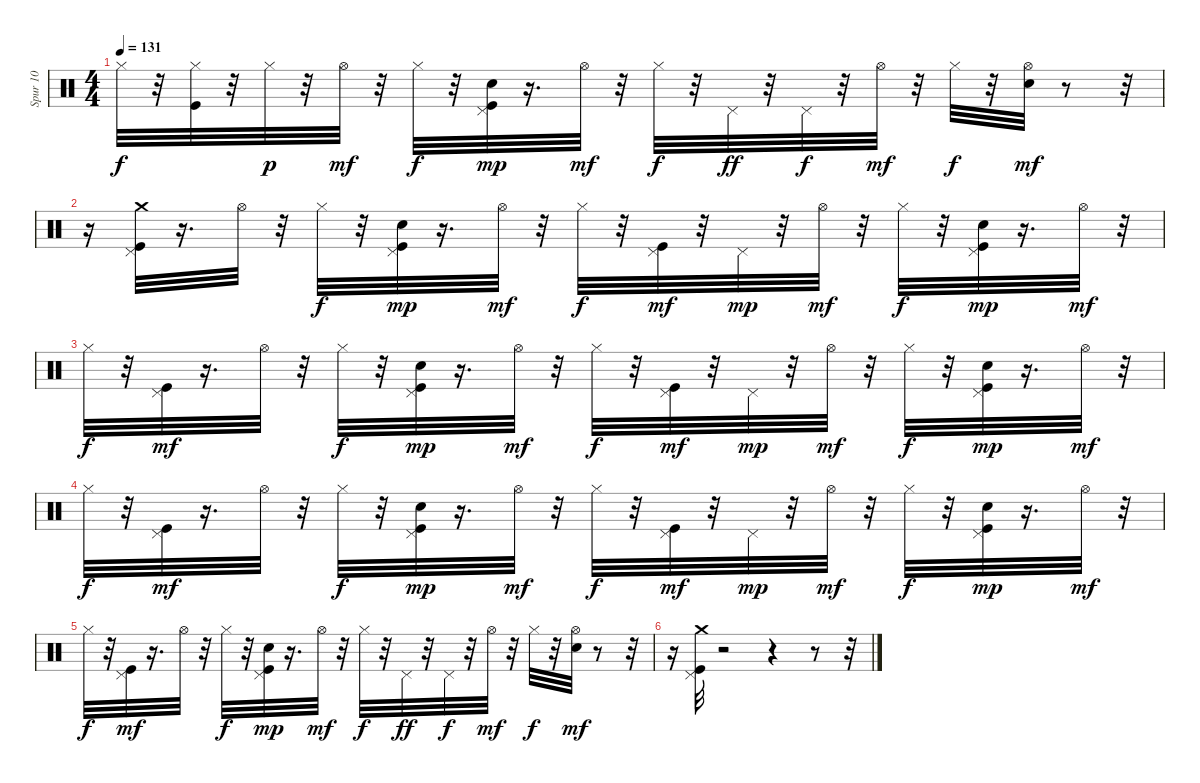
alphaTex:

\track ("Spur 10" "Spur 10") {instrument percussion}
\staff {score}
\articulation defaults
\ts (4 4)
\tempo 131
\clef neutral
\ks c "Hi-Hat (closed)".32{dy f}
r.32 ("Kick (hit)" "Hi-Hat (closed)").32 r.32 "Hi-Hat (closed)".32{dy p} r.32 "Hi-Hat (open)".32{dy mf} r.32 "Hi-Hat (closed)".32{dy f} r.32 ("Kick (hit)" "Hand Clap (hit)" "Pedal Hi-Hat (hit)").32{dy mp} r.16{d} "Hi-Hat (open)".32{dy mf} r.32 "Hi-Hat (closed)".32{dy f} r.32 "Pedal Hi-Hat (hit)".32{dy ff} r.32 "Pedal Hi-Hat (hit)".32{dy f} r.32 "Hi-Hat (open)".32{dy mf} r.32 "Hi-Hat (closed)".32{dy f} r.32 ("Hand Clap (hit)" "Hi-Hat (open)").32{dy mf} r.8 r.32 |
r.16 ("Crash medium (hit)" "Kick (hit)" "Pedal Hi-Hat (hit)").32 r.16{d} "Hi-Hat (open)".32 r.32 "Hi-Hat (closed)".32{dy f} r.32 ("Kick (hit)" "Hand Clap (hit)" "Pedal Hi-Hat (hit)").32{dy mp} r.16{d} "Hi-Hat (open)".32{dy mf} r.32 "Hi-Hat (closed)".32{dy f} r.32 ("Kick (hit)" "Pedal Hi-Hat (hit)").32{dy mf} r.32 "Pedal Hi-Hat (hit)".32{dy mp} r.32 "Hi-Hat (open)".32{dy mf} r.32 "Hi-Hat (closed)".32{dy f} r.32 ("Kick (hit)" "Hand Clap (hit)" "Pedal Hi-Hat (hit)").32{dy mp} r.16{d} "Hi-Hat (open)".32{dy mf} r.32 |
"Hi-Hat (closed)".32{dy f} r.32 ("Kick (hit)" "Pedal Hi-Hat (hit)").32{dy mf} r.16{d} "Hi-Hat (open)".32 r.32 "Hi-Hat (closed)".32{dy f} r.32 ("Kick (hit)" "Hand Clap (hit)" "Pedal Hi-Hat (hit)").32{dy mp} r.16{d} "Hi-Hat (open)".32{dy mf} r.32 "Hi-Hat (closed)".32{dy f} r.32 ("Kick (hit)" "Pedal Hi-Hat (hit)").32{dy mf} r.32 "Pedal Hi-Hat (hit)".32{dy mp} r.32 "Hi-Hat (open)".32{dy mf} r.32 "Hi-Hat (closed)".32{dy f} r.32 ("Kick (hit)" "Hand Clap (hit)" "Pedal Hi-Hat (hit)").32{dy mp} r.16{d} "Hi-Hat (open)".32{dy mf} r.32 |
"Hi-Hat (closed)".32{dy f} r.32 ("Kick (hit)" "Pedal Hi-Hat (hit)").32{dy mf} r.16{d} "Hi-Hat (open)".32 r.32 "Hi-Hat (closed)".32{dy f} r.32 ("Kick (hit)" "Hand Clap (hit)" "Pedal Hi-Hat (hit)").32{dy mp} r.16{d} "Hi-Hat (open)".32{dy mf} r.32 "Hi-Hat (closed)".32{dy f} r.32 ("Kick (hit)" "Pedal Hi-Hat (hit)").32{dy mf} r.32 "Pedal Hi-Hat (hit)".32{dy mp} r.32 "Hi-Hat (open)".32{dy mf} r.32 "Hi-Hat (closed)".32{dy f} r.32 ("Kick (hit)" "Hand Clap (hit)" "Pedal Hi-Hat (hit)").32{dy mp} r.16{d} "Hi-Hat (open)".32{dy mf} r.32 |
"Hi-Hat (closed)".32{dy f} r.32 ("Kick (hit)" "Pedal Hi-Hat (hit)").32{dy mf} r.16{d} "Hi-Hat (open)".32 r.32 "Hi-Hat (closed)".32{dy f} r.32 ("Kick (hit)" "Hand Clap (hit)" "Pedal Hi-Hat (hit)").32{dy mp} r.16{d} "Hi-Hat (open)".32{dy mf} r.32 "Hi-Hat (closed)".32{dy f} r.32 "Pedal Hi-Hat (hit)".32{dy ff} r.32 "Pedal Hi-Hat (hit)".32{dy f} r.32 "Hi-Hat (open)".32{dy mf} r.32 "Hi-Hat (closed)".32{dy f} r.32 ("Hand Clap (hit)" "Hi-Hat (open)").32{dy mf} r.8 r.32 |
r.16 ("Crash medium (hit)" "Kick (hit)" "Pedal Hi-Hat (hit)").32 r.2 r.4 r.8 r.32
